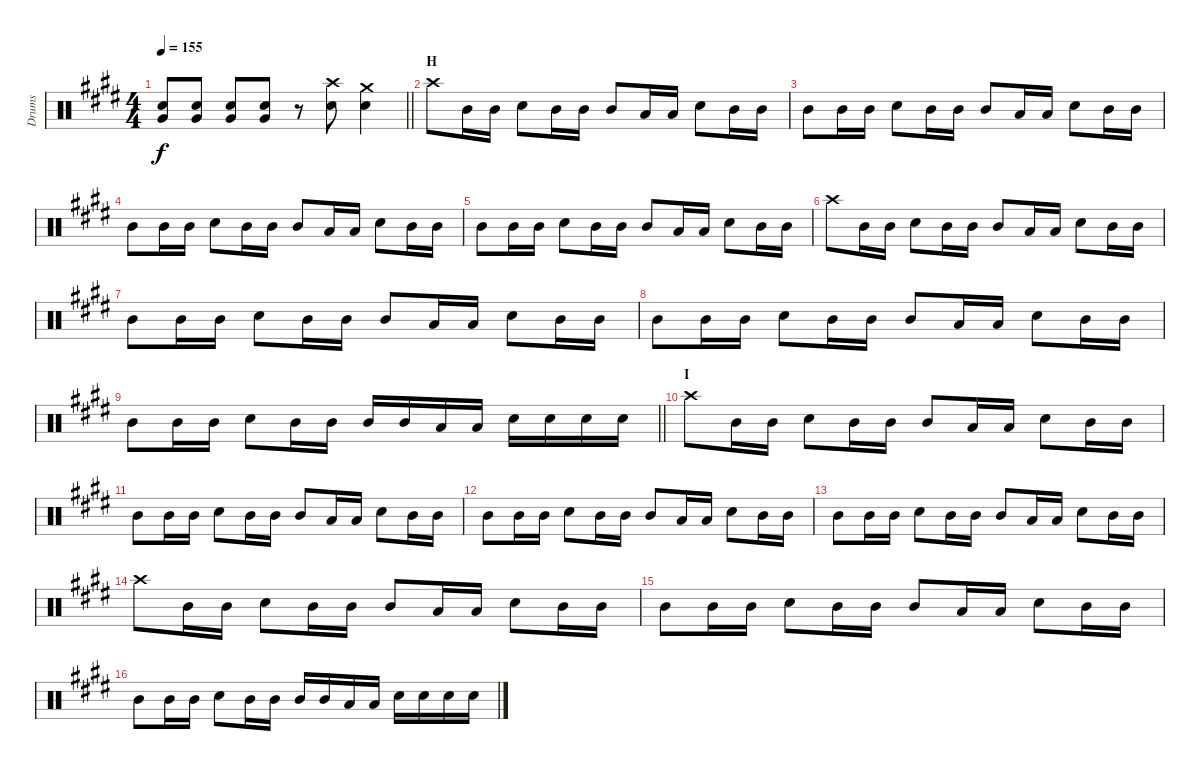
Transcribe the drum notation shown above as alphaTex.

\track ("Drums" "Drums") {instrument percussion}
\staff {score}
\articulation defaults
\ts (4 4)
\tempo 155
\clef neutral
\barLineRight lightlight
\ks e
("Snare (hit) 2" "Very Low Tom (hit)").8{dy f} ("Snare (hit) 2" "Very Low Tom (hit)").8 ("Snare (hit) 2" "Very Low Tom (hit)").8 ("Snare (hit) 2" "Very Low Tom (hit)").8 r.8 ("Crash high (hit)" "Snare (hit) 2").8 ("Crash medium (hit)" "Snare (hit) 2").4 |
\section ("" "H")
"Crash high (hit)".8 "Mid Tom (hit)".16 "Mid Tom (hit)".16 "Snare (hit) 2".8 "Mid Tom (hit)".16 "Mid Tom (hit)".16 "Mid Tom (hit)".8 "Low Tom (hit)".16 "Low Tom (hit)".16 "Snare (hit) 2".8 "Mid Tom (hit)".16 "Mid Tom (hit)".16 |
"Mid Tom (hit)".8 "Mid Tom (hit)".16 "Mid Tom (hit)".16 "Snare (hit) 2".8 "Mid Tom (hit)".16 "Mid Tom (hit)".16 "Mid Tom (hit)".8 "Low Tom (hit)".16 "Low Tom (hit)".16 "Snare (hit) 2".8 "Mid Tom (hit)".16 "Mid Tom (hit)".16 |
"Mid Tom (hit)".8 "Mid Tom (hit)".16 "Mid Tom (hit)".16 "Snare (hit) 2".8 "Mid Tom (hit)".16 "Mid Tom (hit)".16 "Mid Tom (hit)".8 "Low Tom (hit)".16 "Low Tom (hit)".16 "Snare (hit) 2".8 "Mid Tom (hit)".16 "Mid Tom (hit)".16 |
"Mid Tom (hit)".8 "Mid Tom (hit)".16 "Mid Tom (hit)".16 "Snare (hit) 2".8 "Mid Tom (hit)".16 "Mid Tom (hit)".16 "Mid Tom (hit)".8 "Low Tom (hit)".16 "Low Tom (hit)".16 "Snare (hit) 2".8 "Mid Tom (hit)".16 "Mid Tom (hit)".16 |
"Crash high (hit)".8 "Mid Tom (hit)".16 "Mid Tom (hit)".16 "Snare (hit) 2".8 "Mid Tom (hit)".16 "Mid Tom (hit)".16 "Mid Tom (hit)".8 "Low Tom (hit)".16 "Low Tom (hit)".16 "Snare (hit) 2".8 "Mid Tom (hit)".16 "Mid Tom (hit)".16 |
"Mid Tom (hit)".8 "Mid Tom (hit)".16 "Mid Tom (hit)".16 "Snare (hit) 2".8 "Mid Tom (hit)".16 "Mid Tom (hit)".16 "Mid Tom (hit)".8 "Low Tom (hit)".16 "Low Tom (hit)".16 "Snare (hit) 2".8 "Mid Tom (hit)".16 "Mid Tom (hit)".16 |
"Mid Tom (hit)".8 "Mid Tom (hit)".16 "Mid Tom (hit)".16 "Snare (hit) 2".8 "Mid Tom (hit)".16 "Mid Tom (hit)".16 "Mid Tom (hit)".8 "Low Tom (hit)".16 "Low Tom (hit)".16 "Snare (hit) 2".8 "Mid Tom (hit)".16 "Mid Tom (hit)".16 |
\barLineRight lightlight "Mid Tom (hit)".8 "Mid Tom (hit)".16 "Mid Tom (hit)".16 "Snare (hit) 2".8 "Mid Tom (hit)".16 "Mid Tom (hit)".16 "Mid Tom (hit)".16 "Mid Tom (hit)".16 "Low Tom (hit)".16 "Low Tom (hit)".16 "Snare (hit) 2".16 "Snare (hit) 2".16 "Snare (hit) 2".16 "Snare (hit) 2".16
|
\section ("" "I")
"Crash high (hit)".8 "Mid Tom (hit)".16 "Mid Tom (hit)".16 "Snare (hit) 2".8 "Mid Tom (hit)".16 "Mid Tom (hit)".16 "Mid Tom (hit)".8 "Low Tom (hit)".16 "Low Tom (hit)".16 "Snare (hit) 2".8 "Mid Tom (hit)".16 "Mid Tom (hit)".16 |
"Mid Tom (hit)".8 "Mid Tom (hit)".16 "Mid Tom (hit)".16 "Snare (hit) 2".8 "Mid Tom (hit)".16 "Mid Tom (hit)".16 "Mid Tom (hit)".8 "Low Tom (hit)".16 "Low Tom (hit)".16 "Snare (hit) 2".8 "Mid Tom (hit)".16 "Mid Tom (hit)".16 |
"Mid Tom (hit)".8 "Mid Tom (hit)".16 "Mid Tom (hit)".16 "Snare (hit) 2".8 "Mid Tom (hit)".16 "Mid Tom (hit)".16 "Mid Tom (hit)".8 "Low Tom (hit)".16 "Low Tom (hit)".16 "Snare (hit) 2".8 "Mid Tom (hit)".16 "Mid Tom (hit)".16 |
"Mid Tom (hit)".8 "Mid Tom (hit)".16 "Mid Tom (hit)".16 "Snare (hit) 2".8 "Mid Tom (hit)".16 "Mid Tom (hit)".16 "Mid Tom (hit)".8 "Low Tom (hit)".16 "Low Tom (hit)".16 "Snare (hit) 2".8 "Mid Tom (hit)".16 "Mid Tom (hit)".16 |
"Crash high (hit)".8 "Mid Tom (hit)".16 "Mid Tom (hit)".16 "Snare (hit) 2".8 "Mid Tom (hit)".16 "Mid Tom (hit)".16 "Mid Tom (hit)".8 "Low Tom (hit)".16 "Low Tom (hit)".16 "Snare (hit) 2".8 "Mid Tom (hit)".16 "Mid Tom (hit)".16 |
"Mid Tom (hit)".8 "Mid Tom (hit)".16 "Mid Tom (hit)".16 "Snare (hit) 2".8 "Mid Tom (hit)".16 "Mid Tom (hit)".16 "Mid Tom (hit)".8 "Low Tom (hit)".16 "Low Tom (hit)".16 "Snare (hit) 2".8 "Mid Tom (hit)".16 "Mid Tom (hit)".16 |
"Mid Tom (hit)".8 "Mid Tom (hit)".16 "Mid Tom (hit)".16 "Snare (hit) 2".8 "Mid Tom (hit)".16 "Mid Tom (hit)".16 "Mid Tom (hit)".16 "Mid Tom (hit)".16 "Low Tom (hit)".16 "Low Tom (hit)".16 "Snare (hit) 2".16 "Snare (hit) 2".16 "Snare (hit) 2".16 "Snare (hit) 2".16
